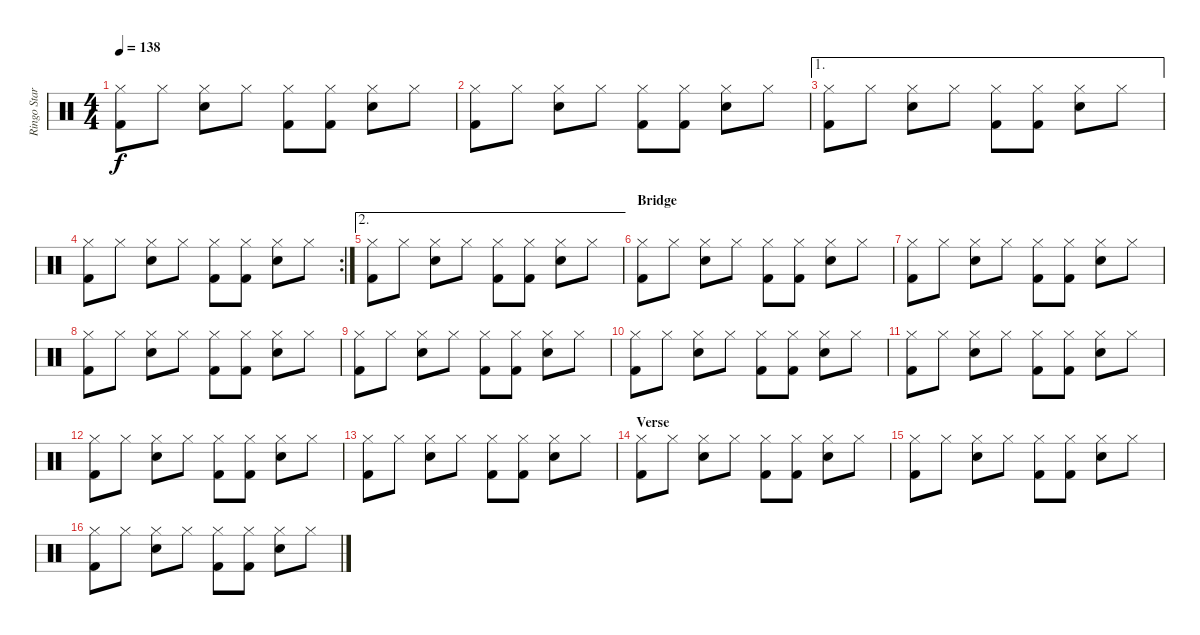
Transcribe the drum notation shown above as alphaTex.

\track ("Ringo Starr" "Ringo Star") {instrument percussion}
\staff {score}
\articulation defaults
\ts (4 4)
\tempo 138
\clef neutral
\ks c
("Hi-Hat (closed)" "Kick (hit) 2").8{dy f} "Hi-Hat (closed)".8 ("Hi-Hat (closed)" "Electric Snare (hit)").8 "Hi-Hat (closed)".8 ("Hi-Hat (closed)" "Kick (hit) 2").8 ("Hi-Hat (closed)" "Kick (hit) 2").8 ("Hi-Hat (closed)" "Electric Snare (hit)").8 "Hi-Hat (closed)".8 |
("Hi-Hat (closed)" "Kick (hit) 2").8 "Hi-Hat (closed)".8 ("Hi-Hat (closed)" "Electric Snare (hit)").8 "Hi-Hat (closed)".8 ("Hi-Hat (closed)" "Kick (hit) 2").8 ("Hi-Hat (closed)" "Kick (hit) 2").8 ("Hi-Hat (closed)" "Electric Snare (hit)").8 "Hi-Hat (closed)".8 |
\ae 1
("Hi-Hat (closed)" "Kick (hit) 2").8 "Hi-Hat (closed)".8 ("Hi-Hat (closed)" "Electric Snare (hit)").8 "Hi-Hat (closed)".8 ("Hi-Hat (closed)" "Kick (hit) 2").8 ("Hi-Hat (closed)" "Kick (hit) 2").8 ("Hi-Hat (closed)" "Electric Snare (hit)").8 "Hi-Hat (closed)".8 |
\rc 2
("Hi-Hat (closed)" "Kick (hit) 2").8 "Hi-Hat (closed)".8 ("Hi-Hat (closed)" "Electric Snare (hit)").8 "Hi-Hat (closed)".8 ("Hi-Hat (closed)" "Kick (hit) 2").8 ("Hi-Hat (closed)" "Kick (hit) 2").8 ("Hi-Hat (closed)" "Electric Snare (hit)").8 "Hi-Hat (closed)".8 |
\ae 2
("Hi-Hat (closed)" "Kick (hit) 2").8 "Hi-Hat (closed)".8 ("Hi-Hat (closed)" "Electric Snare (hit)").8 "Hi-Hat (closed)".8 ("Hi-Hat (closed)" "Kick (hit) 2").8 ("Hi-Hat (closed)" "Kick (hit) 2").8 ("Hi-Hat (closed)" "Electric Snare (hit)").8 "Hi-Hat (closed)".8 |
\section ("" "Bridge")
("Hi-Hat (closed)" "Kick (hit) 2").8 "Hi-Hat (closed)".8 ("Hi-Hat (closed)" "Electric Snare (hit)").8 "Hi-Hat (closed)".8 ("Hi-Hat (closed)" "Kick (hit) 2").8 ("Hi-Hat (closed)" "Kick (hit) 2").8 ("Hi-Hat (closed)" "Electric Snare (hit)").8 "Hi-Hat (closed)".8 |
("Hi-Hat (closed)" "Kick (hit) 2").8 "Hi-Hat (closed)".8 ("Hi-Hat (closed)" "Electric Snare (hit)").8 "Hi-Hat (closed)".8 ("Hi-Hat (closed)" "Kick (hit) 2").8 ("Hi-Hat (closed)" "Kick (hit) 2").8 ("Hi-Hat (closed)" "Electric Snare (hit)").8 "Hi-Hat (closed)".8 |
("Hi-Hat (closed)" "Kick (hit) 2").8 "Hi-Hat (closed)".8 ("Hi-Hat (closed)" "Electric Snare (hit)").8 "Hi-Hat (closed)".8 ("Hi-Hat (closed)" "Kick (hit) 2").8 ("Hi-Hat (closed)" "Kick (hit) 2").8 ("Hi-Hat (closed)" "Electric Snare (hit)").8 "Hi-Hat (closed)".8 |
("Hi-Hat (closed)" "Kick (hit) 2").8 "Hi-Hat (closed)".8 ("Hi-Hat (closed)" "Electric Snare (hit)").8 "Hi-Hat (closed)".8 ("Hi-Hat (closed)" "Kick (hit) 2").8 ("Hi-Hat (closed)" "Kick (hit) 2").8 ("Hi-Hat (closed)" "Electric Snare (hit)").8 "Hi-Hat (closed)".8 |
("Hi-Hat (closed)" "Kick (hit) 2").8 "Hi-Hat (closed)".8 ("Hi-Hat (closed)" "Electric Snare (hit)").8 "Hi-Hat (closed)".8 ("Hi-Hat (closed)" "Kick (hit) 2").8 ("Hi-Hat (closed)" "Kick (hit) 2").8 ("Hi-Hat (closed)" "Electric Snare (hit)").8 "Hi-Hat (closed)".8 |
("Hi-Hat (closed)" "Kick (hit) 2").8 "Hi-Hat (closed)".8 ("Hi-Hat (closed)" "Electric Snare (hit)").8 "Hi-Hat (closed)".8 ("Hi-Hat (closed)" "Kick (hit) 2").8 ("Hi-Hat (closed)" "Kick (hit) 2").8 ("Hi-Hat (closed)" "Electric Snare (hit)").8 "Hi-Hat (closed)".8 |
("Hi-Hat (closed)" "Kick (hit) 2").8 "Hi-Hat (closed)".8 ("Hi-Hat (closed)" "Electric Snare (hit)").8 "Hi-Hat (closed)".8 ("Hi-Hat (closed)" "Kick (hit) 2").8 ("Hi-Hat (closed)" "Kick (hit) 2").8 ("Hi-Hat (closed)" "Electric Snare (hit)").8 "Hi-Hat (closed)".8 |
("Hi-Hat (closed)" "Kick (hit) 2").8 "Hi-Hat (closed)".8 ("Hi-Hat (closed)" "Electric Snare (hit)").8 "Hi-Hat (closed)".8 ("Hi-Hat (closed)" "Kick (hit) 2").8 ("Hi-Hat (closed)" "Kick (hit) 2").8 ("Hi-Hat (closed)" "Electric Snare (hit)").8 "Hi-Hat (closed)".8 |
\section ("" "Verse")
("Hi-Hat (closed)" "Kick (hit) 2").8 "Hi-Hat (closed)".8 ("Hi-Hat (closed)" "Electric Snare (hit)").8 "Hi-Hat (closed)".8 ("Hi-Hat (closed)" "Kick (hit) 2").8 ("Hi-Hat (closed)" "Kick (hit) 2").8 ("Hi-Hat (closed)" "Electric Snare (hit)").8 "Hi-Hat (closed)".8 |
("Hi-Hat (closed)" "Kick (hit) 2").8 "Hi-Hat (closed)".8 ("Hi-Hat (closed)" "Electric Snare (hit)").8 "Hi-Hat (closed)".8 ("Hi-Hat (closed)" "Kick (hit) 2").8 ("Hi-Hat (closed)" "Kick (hit) 2").8 ("Hi-Hat (closed)" "Electric Snare (hit)").8 "Hi-Hat (closed)".8 |
("Hi-Hat (closed)" "Kick (hit) 2").8 "Hi-Hat (closed)".8 ("Hi-Hat (closed)" "Electric Snare (hit)").8 "Hi-Hat (closed)".8 ("Hi-Hat (closed)" "Kick (hit) 2").8 ("Hi-Hat (closed)" "Kick (hit) 2").8 ("Hi-Hat (closed)" "Electric Snare (hit)").8 "Hi-Hat (closed)".8
